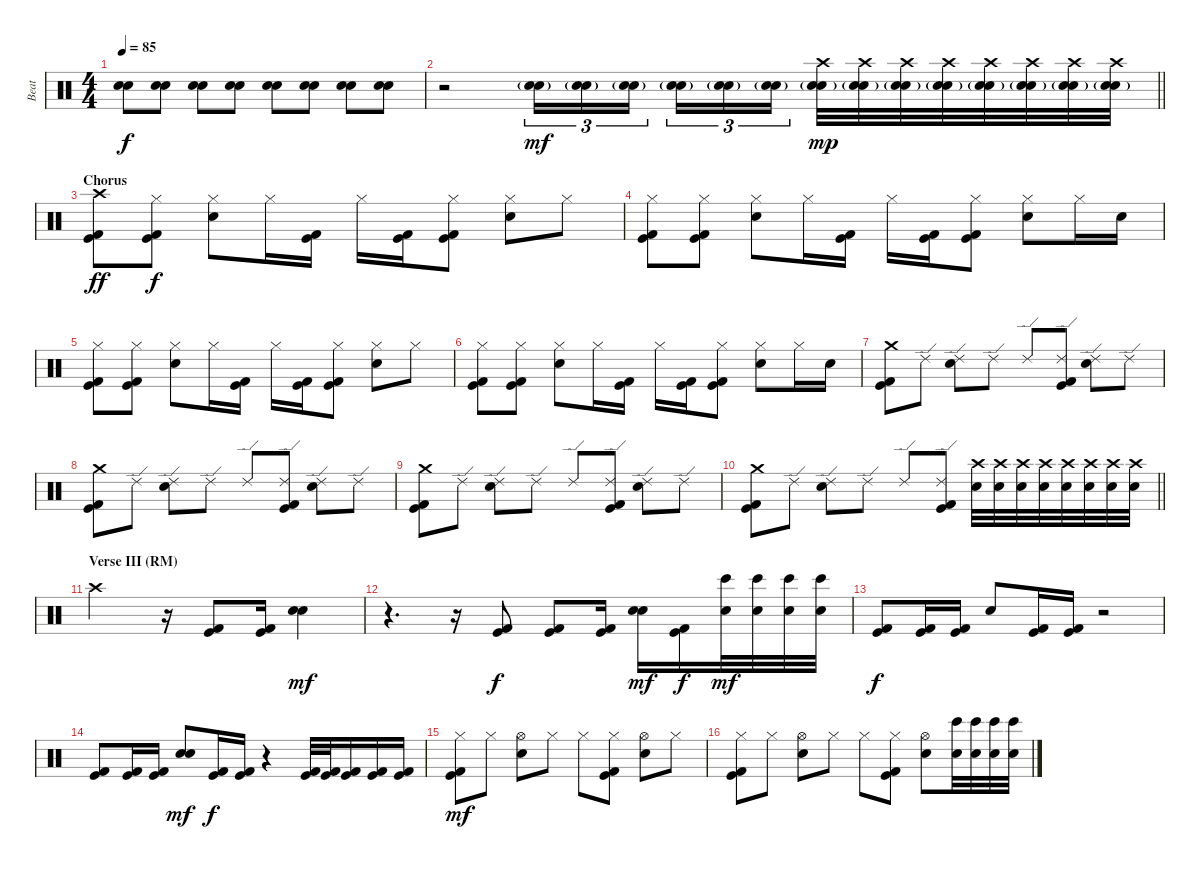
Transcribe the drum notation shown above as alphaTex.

\track ("Beat" "Beat") {instrument percussion}
\staff {score}
\articulation defaults
\ts (4 4)
\tempo 85
\clef neutral
\ks c
("Hand Clap (hit)" "Hand Clap (hit)").8{dy f} ("Hand Clap (hit)" "Hand Clap (hit)").8 ("Hand Clap (hit)" "Hand Clap (hit)").8 ("Hand Clap (hit)" "Hand Clap (hit)").8 ("Hand Clap (hit)" "Hand Clap (hit)").8 ("Hand Clap (hit)" "Hand Clap (hit)").8 ("Hand Clap (hit)" "Hand Clap (hit)").8 ("Hand Clap (hit)" "Hand Clap (hit)").8 |
\barLineRight lightlight
r.2 ("Electric Snare (hit)" "Snare (hit) 2"{g}).16{tu (3 2) dy mf} ("Electric Snare (hit)" "Snare (hit) 2"{g}).16{tu (3 2)} ("Electric Snare (hit)" "Snare (hit) 2"{g}).16{tu (3 2) beam splitsecondary} ("Electric Snare (hit)" "Snare (hit) 2"{g}).16{tu (3 2)} ("Electric Snare (hit)" "Snare (hit) 2"{g}).16{tu (3 2)} ("Electric Snare (hit)" "Snare (hit) 2"{g}).16{tu (3 2)} ("Crash high (hit)" "Electric Snare (hit)" "Snare (hit) 2"{g}).32{dy mp} ("Crash high (hit)" "Electric Snare (hit)" "Snare (hit) 2"{g}).32 ("Crash high (hit)" "Electric Snare (hit)" "Snare (hit) 2"{g}).32 ("Crash high (hit)" "Electric Snare (hit)" "Snare (hit) 2"{g}).32 ("Crash high (hit)" "Electric Snare (hit)" "Snare (hit) 2"{g}).32 ("Crash high (hit)" "Electric Snare (hit)" "Snare (hit) 2"{g}).32 ("Crash high (hit)" "Electric Snare (hit)" "Snare (hit) 2"{g}).32 ("Crash high (hit)" "Electric Snare (hit)" "Snare (hit) 2"{g}).32 |
\section ("" "Chorus")
("Crash high (hit)" "Kick (hit)" "Kick (hit) 2").8{dy ff} ("Hi-Hat (closed)" "Kick (hit)" "Kick (hit) 2").8{dy f} ("Hi-Hat (closed)" "Snare (hit) 2").8 "Hi-Hat (closed)".16 ("Kick (hit)" "Kick (hit) 2").16 "Hi-Hat (closed)".16 ("Kick (hit)" "Kick (hit) 2").16 ("Hi-Hat (closed)" "Kick (hit)" "Kick (hit) 2").8 ("Hi-Hat (closed)" "Snare (hit) 2").8 "Hi-Hat (closed)".8 |
("Hi-Hat (closed)" "Kick (hit)" "Kick (hit) 2").8 ("Hi-Hat (closed)" "Kick (hit)" "Kick (hit) 2").8 ("Hi-Hat (closed)" "Snare (hit) 2").8 "Hi-Hat (closed)".16 ("Kick (hit)" "Kick (hit) 2").16 "Hi-Hat (closed)".16 ("Kick (hit)" "Kick (hit) 2").16 ("Hi-Hat (closed)" "Kick (hit)" "Kick (hit) 2").8 ("Hi-Hat (closed)" "Snare (hit) 2").8 "Hi-Hat (closed)".16 "Snare (hit) 2".16 |
("Hi-Hat (closed)" "Kick (hit)" "Kick (hit) 2").8 ("Hi-Hat (closed)" "Kick (hit)" "Kick (hit) 2").8 ("Hi-Hat (closed)" "Snare (hit) 2").8 "Hi-Hat (closed)".16 ("Kick (hit)" "Kick (hit) 2").16 "Hi-Hat (closed)".16 ("Kick (hit)" "Kick (hit) 2").16 ("Hi-Hat (closed)" "Kick (hit)" "Kick (hit) 2").8 ("Hi-Hat (closed)" "Snare (hit) 2").8 "Hi-Hat (closed)".8 |
("Hi-Hat (closed)" "Kick (hit)" "Kick (hit) 2").8 ("Hi-Hat (closed)" "Kick (hit)" "Kick (hit) 2").8 ("Hi-Hat (closed)" "Snare (hit) 2").8 "Hi-Hat (closed)".16 ("Kick (hit)" "Kick (hit) 2").16 "Hi-Hat (closed)".16 ("Kick (hit)" "Kick (hit) 2").16 ("Hi-Hat (closed)" "Kick (hit)" "Kick (hit) 2").8 ("Hi-Hat (closed)" "Snare (hit) 2").8 "Hi-Hat (closed)".16 "Snare (hit) 2".16 |
("Crash medium (hit)" "Kick (hit)" "Kick (hit) 2").8 "Ride (edge) 2".8 ("Ride (edge) 2" "Snare (hit) 2").8 "Ride (edge) 2".8 "Ride (edge) 2".8 ("Ride (edge) 2" "Kick (hit)" "Kick (hit) 2").8 ("Ride (edge) 2" "Snare (hit) 2").8 "Ride (edge) 2".8 |
("Crash medium (hit)" "Kick (hit)" "Kick (hit) 2").8 "Ride (edge) 2".8 ("Ride (edge) 2" "Snare (hit) 2").8 "Ride (edge) 2".8 "Ride (edge) 2".8 ("Ride (edge) 2" "Kick (hit)" "Kick (hit) 2").8 ("Ride (edge) 2" "Snare (hit) 2").8 "Ride (edge) 2".8 |
("Crash medium (hit)" "Kick (hit)" "Kick (hit) 2").8 "Ride (edge) 2".8 ("Ride (edge) 2" "Snare (hit) 2").8 "Ride (edge) 2".8 "Ride (edge) 2".8 ("Ride (edge) 2" "Kick (hit)" "Kick (hit) 2").8 ("Ride (edge) 2" "Snare (hit) 2").8 "Ride (edge) 2".8 |
\barLineRight lightlight
("Crash medium (hit)" "Kick (hit)" "Kick (hit) 2").8 "Ride (edge) 2".8 ("Ride (edge) 2" "Snare (hit) 2").8 "Ride (edge) 2".8 "Ride (edge) 2".8 ("Ride (edge) 2" "Kick (hit)" "Kick (hit) 2").8 ("Crash high (hit)" "Snare (hit) 2").32 ("Crash high (hit)" "Snare (hit) 2").32 ("Crash high (hit)" "Snare (hit) 2").32 ("Crash high (hit)" "Snare (hit) 2").32 ("Crash high (hit)" "Snare (hit) 2").32 ("Crash high (hit)" "Snare (hit) 2").32 ("Crash high (hit)" "Snare (hit) 2").32 ("Crash high (hit)" "Snare (hit) 2").32 |
\section ("" "Verse III (RM)")
"Crash high (hit)".2 r.16 ("Kick (hit)" "Kick (hit) 2").8 ("Kick (hit)" "Kick (hit) 2").16 ("Hand Clap (hit)" "Snare (hit) 2").4{dy mf} |
r.4{d} r.16 ("Kick (hit)" "Kick (hit) 2").8{dy f} ("Kick (hit)" "Kick (hit) 2").8 ("Kick (hit)" "Kick (hit) 2").16 ("Hand Clap (hit)" "Snare (hit) 2").16{dy mf} ("Kick (hit)" "Kick (hit) 2").16{dy f} ("Hand Clap (hit)" "Bongo High (hit)").32{dy mf} ("Hand Clap (hit)" "Bongo High (hit)").32 ("Hand Clap (hit)" "Bongo High (hit)").32 ("Hand Clap (hit)" "Bongo High (hit)").32 |
("Kick (hit)" "Kick (hit) 2").8{dy f} ("Kick (hit)" "Kick (hit) 2").16 ("Kick (hit)" "Kick (hit) 2").16 "Snare (hit) 2".8 ("Kick (hit)" "Kick (hit) 2").16 ("Kick (hit)" "Kick (hit) 2").16 r.2 |
("Kick (hit)" "Kick (hit) 2").8 ("Kick (hit)" "Kick (hit) 2").16 ("Kick (hit)" "Kick (hit) 2").16 ("Hand Clap (hit)" "Snare (hit) 2").8{dy mf} ("Kick (hit)" "Kick (hit) 2").16{dy f} ("Kick (hit)" "Kick (hit) 2").16 r.4 ("Kick (hit)" "Kick (hit) 2").32 ("Kick (hit)" "Kick (hit) 2").32 ("Kick (hit)" "Kick (hit) 2").16 ("Kick (hit)" "Kick (hit) 2").16 ("Kick (hit)" "Kick (hit) 2").16 |
("Hi-Hat (closed)" "Kick (hit)" "Kick (hit) 2").8{dy mf} "Hi-Hat (closed)".8 ("Hi-Hat (open)" "Snare (hit) 2").8 "Hi-Hat (closed)".8 "Hi-Hat (closed)".8 ("Hi-Hat (closed)" "Kick (hit)" "Kick (hit) 2").8 ("Hi-Hat (open)" "Snare (hit) 2").8 "Hi-Hat (closed)".8 |
("Hi-Hat (closed)" "Kick (hit)" "Kick (hit) 2").8 "Hi-Hat (closed)".8 ("Hi-Hat (open)" "Snare (hit) 2").8 "Hi-Hat (closed)".8 "Hi-Hat (closed)".8 ("Hi-Hat (closed)" "Kick (hit)" "Kick (hit) 2").8 ("Hi-Hat (open)" "Snare (hit) 2").8 ("Hand Clap (hit)" "Bongo High (hit)").32 ("Hand Clap (hit)" "Bongo High (hit)").32 ("Hand Clap (hit)" "Bongo High (hit)").32 ("Hand Clap (hit)" "Bongo High (hit)").32
